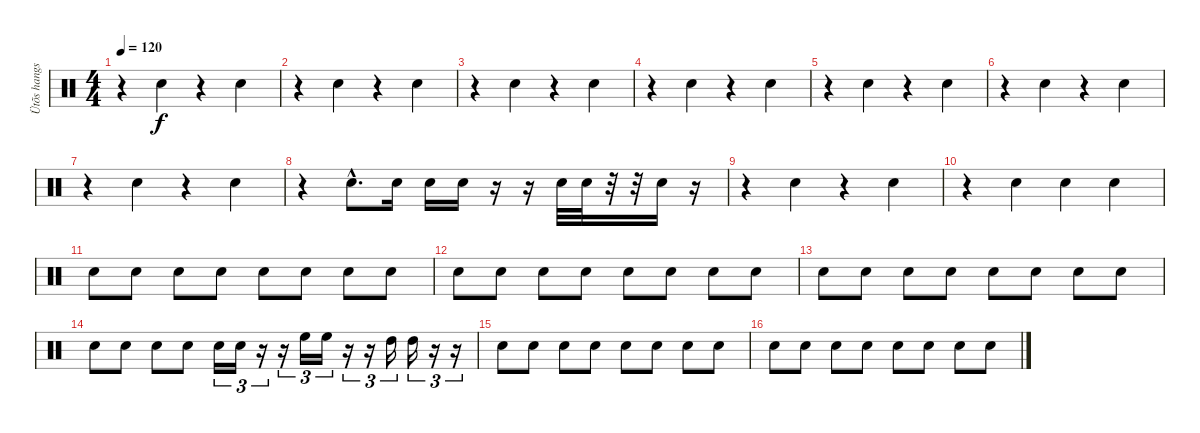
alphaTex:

\track ("Ütõs hangszer" "Ütõs hangs") {instrument percussion}
\staff {score}
\articulation defaults
\ts (4 4)
\tempo 120
\clef neutral
\ks c
r.4{dy f} "Electric Snare (hit)".4 r.4 "Electric Snare (hit)".4 |
r.4 "Electric Snare (hit)".4 r.4 "Electric Snare (hit)".4 |
r.4 "Electric Snare (hit)".4 r.4 "Electric Snare (hit)".4 |
r.4 "Electric Snare (hit)".4 r.4 "Electric Snare (hit)".4 |
r.4 "Electric Snare (hit)".4 r.4 "Electric Snare (hit)".4 |
r.4 "Electric Snare (hit)".4 r.4 "Electric Snare (hit)".4 |
r.4 "Electric Snare (hit)".4 r.4 "Electric Snare (hit)".4 |
r.4 "Electric Snare (hit)"{hac}.8{d} "Electric Snare (hit)".16 "Electric Snare (hit)".16 "Electric Snare (hit)".16 r.16 r.16 "Electric Snare (hit)".32 "Electric Snare (hit)".32 r.32 r.32 "Electric Snare (hit)".16 r.16 |
r.4 "Electric Snare (hit)".4 r.4 "Electric Snare (hit)".4 |
r.4 "Electric Snare (hit)".4 "Electric Snare (hit)".4 "Electric Snare (hit)".4 |
"Electric Snare (hit)".8 "Electric Snare (hit)".8 "Electric Snare (hit)".8 "Electric Snare (hit)".8 "Electric Snare (hit)".8 "Electric Snare (hit)".8 "Electric Snare (hit)".8 "Electric Snare (hit)".8 |
"Electric Snare (hit)".8 "Electric Snare (hit)".8 "Electric Snare (hit)".8 "Electric Snare (hit)".8 "Electric Snare (hit)".8 "Electric Snare (hit)".8 "Electric Snare (hit)".8 "Electric Snare (hit)".8 |
"Electric Snare (hit)".8 "Electric Snare (hit)".8 "Electric Snare (hit)".8 "Electric Snare (hit)".8 "Electric Snare (hit)".8 "Electric Snare (hit)".8 "Electric Snare (hit)".8 "Electric Snare (hit)".8 |
"Electric Snare (hit)".8 "Electric Snare (hit)".8 "Electric Snare (hit)".8 "Electric Snare (hit)".8 "Electric Snare (hit)".16{tu (3 2)} "Electric Snare (hit)".16{tu (3 2)} r.16{tu (3 2)} r.16{tu (3 2)} "High Floor Tom (hit)".16{tu (3 2)} "High Floor Tom (hit)".16{tu (3 2)} r.16{tu (3 2)} r.16{tu (3 2)} "High Tom (hit)".16{tu (3 2)} "High Tom (hit)".16{tu (3 2)} r.16{tu (3 2)} r.16{tu (3 2)} |
"Electric Snare (hit)".8 "Electric Snare (hit)".8 "Electric Snare (hit)".8 "Electric Snare (hit)".8 "Electric Snare (hit)".8 "Electric Snare (hit)".8 "Electric Snare (hit)".8 "Electric Snare (hit)".8 |
"Electric Snare (hit)".8 "Electric Snare (hit)".8 "Electric Snare (hit)".8 "Electric Snare (hit)".8 "Electric Snare (hit)".8 "Electric Snare (hit)".8 "Electric Snare (hit)".8 "Electric Snare (hit)".8
